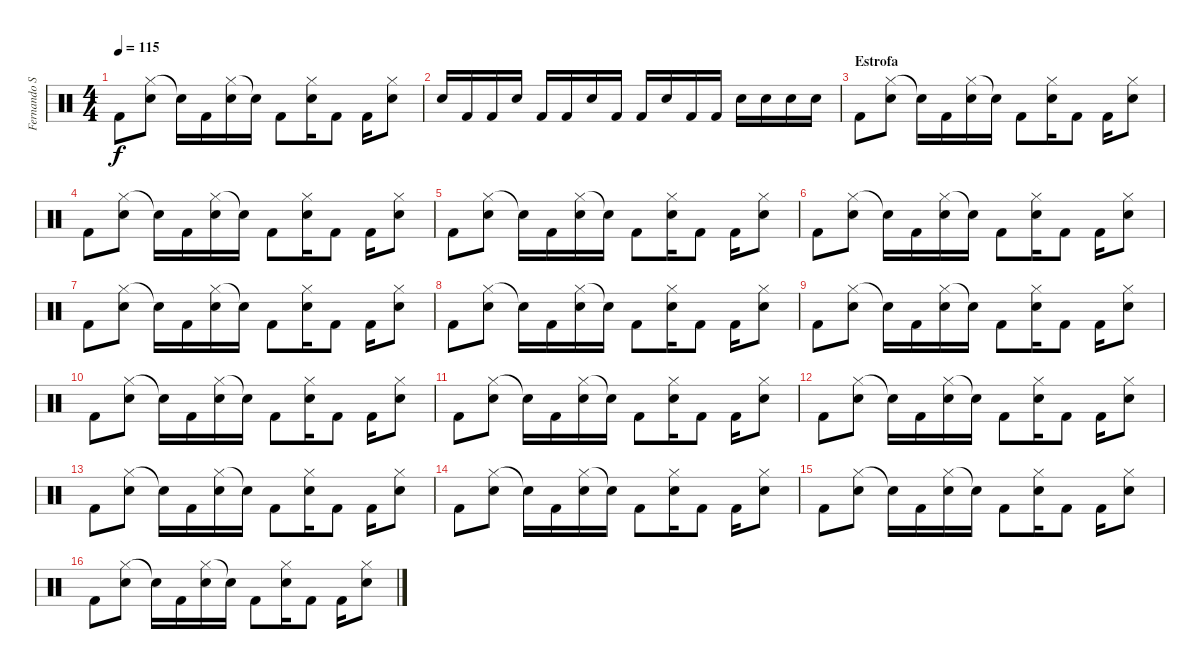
\track ("Fernando Scarcella" "Fernando S") {instrument percussion}
\staff {score}
\articulation defaults
\ts (4 4)
\tempo 115
\clef neutral
\ks c "Kick (hit) 2".8{dy f}
("Hi-Hat (closed)" "Snare (hit) 2").8 "Snare (hit)"{t}.16 "Kick (hit) 2".16 ("Hi-Hat (closed)" "Snare (hit) 2").16 "Snare (hit)"{t}.16 "Kick (hit) 2".8 ("Hi-Hat (closed)" "Snare (hit) 2").16 "Kick (hit) 2".8 "Kick (hit) 2".16 ("Hi-Hat (closed)" "Snare (hit) 2").8 |
"Snare (hit) 2".16 "Kick (hit) 2".16 "Kick (hit) 2".16 "Snare (hit) 2".16 "Kick (hit) 2".16 "Kick (hit) 2".16 "Snare (hit) 2".16 "Kick (hit) 2".16 "Kick (hit) 2".16 "Snare (hit) 2".16 "Kick (hit) 2".16 "Kick (hit) 2".16 "Snare (hit) 2".16 "Snare (hit) 2".16 "Snare (hit) 2".16 "Snare (hit) 2".16 |
\section ("" "Estrofa")
"Kick (hit) 2".8 ("Hi-Hat (closed)" "Snare (hit) 2").8 "Snare (hit)"{t}.16 "Kick (hit) 2".16 ("Hi-Hat (closed)" "Snare (hit) 2").16 "Snare (hit)"{t}.16 "Kick (hit) 2".8 ("Hi-Hat (closed)" "Snare (hit) 2").16 "Kick (hit) 2".8 "Kick (hit) 2".16 ("Hi-Hat (closed)" "Snare (hit) 2").8 |
"Kick (hit) 2".8 ("Hi-Hat (closed)" "Snare (hit) 2").8 "Snare (hit)"{t}.16 "Kick (hit) 2".16 ("Hi-Hat (closed)" "Snare (hit) 2").16 "Snare (hit)"{t}.16 "Kick (hit) 2".8 ("Hi-Hat (closed)" "Snare (hit) 2").16 "Kick (hit) 2".8 "Kick (hit) 2".16 ("Hi-Hat (closed)" "Snare (hit) 2").8 |
"Kick (hit) 2".8 ("Hi-Hat (closed)" "Snare (hit) 2").8 "Snare (hit)"{t}.16 "Kick (hit) 2".16 ("Hi-Hat (closed)" "Snare (hit) 2").16 "Snare (hit)"{t}.16 "Kick (hit) 2".8 ("Hi-Hat (closed)" "Snare (hit) 2").16 "Kick (hit) 2".8 "Kick (hit) 2".16 ("Hi-Hat (closed)" "Snare (hit) 2").8 |
"Kick (hit) 2".8 ("Hi-Hat (closed)" "Snare (hit) 2").8 "Snare (hit)"{t}.16 "Kick (hit) 2".16 ("Hi-Hat (closed)" "Snare (hit) 2").16 "Snare (hit)"{t}.16 "Kick (hit) 2".8 ("Hi-Hat (closed)" "Snare (hit) 2").16 "Kick (hit) 2".8 "Kick (hit) 2".16 ("Hi-Hat (closed)" "Snare (hit) 2").8 |
"Kick (hit) 2".8 ("Hi-Hat (closed)" "Snare (hit) 2").8 "Snare (hit)"{t}.16 "Kick (hit) 2".16 ("Hi-Hat (closed)" "Snare (hit) 2").16 "Snare (hit)"{t}.16 "Kick (hit) 2".8 ("Hi-Hat (closed)" "Snare (hit) 2").16 "Kick (hit) 2".8 "Kick (hit) 2".16 ("Hi-Hat (closed)" "Snare (hit) 2").8 |
"Kick (hit) 2".8 ("Hi-Hat (closed)" "Snare (hit) 2").8 "Snare (hit)"{t}.16 "Kick (hit) 2".16 ("Hi-Hat (closed)" "Snare (hit) 2").16 "Snare (hit)"{t}.16 "Kick (hit) 2".8 ("Hi-Hat (closed)" "Snare (hit) 2").16 "Kick (hit) 2".8 "Kick (hit) 2".16 ("Hi-Hat (closed)" "Snare (hit) 2").8 |
"Kick (hit) 2".8 ("Hi-Hat (closed)" "Snare (hit) 2").8 "Snare (hit)"{t}.16 "Kick (hit) 2".16 ("Hi-Hat (closed)" "Snare (hit) 2").16 "Snare (hit)"{t}.16 "Kick (hit) 2".8 ("Hi-Hat (closed)" "Snare (hit) 2").16 "Kick (hit) 2".8 "Kick (hit) 2".16 ("Hi-Hat (closed)" "Snare (hit) 2").8 |
"Kick (hit) 2".8 ("Hi-Hat (closed)" "Snare (hit) 2").8 "Snare (hit)"{t}.16 "Kick (hit) 2".16 ("Hi-Hat (closed)" "Snare (hit) 2").16 "Snare (hit)"{t}.16 "Kick (hit) 2".8 ("Hi-Hat (closed)" "Snare (hit) 2").16 "Kick (hit) 2".8 "Kick (hit) 2".16 ("Hi-Hat (closed)" "Snare (hit) 2").8 |
"Kick (hit) 2".8 ("Hi-Hat (closed)" "Snare (hit) 2").8 "Snare (hit)"{t}.16 "Kick (hit) 2".16 ("Hi-Hat (closed)" "Snare (hit) 2").16 "Snare (hit)"{t}.16 "Kick (hit) 2".8 ("Hi-Hat (closed)" "Snare (hit) 2").16 "Kick (hit) 2".8 "Kick (hit) 2".16 ("Hi-Hat (closed)" "Snare (hit) 2").8 |
"Kick (hit) 2".8 ("Hi-Hat (closed)" "Snare (hit) 2").8 "Snare (hit)"{t}.16 "Kick (hit) 2".16 ("Hi-Hat (closed)" "Snare (hit) 2").16 "Snare (hit)"{t}.16 "Kick (hit) 2".8 ("Hi-Hat (closed)" "Snare (hit) 2").16 "Kick (hit) 2".8 "Kick (hit) 2".16 ("Hi-Hat (closed)" "Snare (hit) 2").8 |
"Kick (hit) 2".8 ("Hi-Hat (closed)" "Snare (hit) 2").8 "Snare (hit)"{t}.16 "Kick (hit) 2".16 ("Hi-Hat (closed)" "Snare (hit) 2").16 "Snare (hit)"{t}.16 "Kick (hit) 2".8 ("Hi-Hat (closed)" "Snare (hit) 2").16 "Kick (hit) 2".8 "Kick (hit) 2".16 ("Hi-Hat (closed)" "Snare (hit) 2").8 |
"Kick (hit) 2".8 ("Hi-Hat (closed)" "Snare (hit) 2").8 "Snare (hit)"{t}.16 "Kick (hit) 2".16 ("Hi-Hat (closed)" "Snare (hit) 2").16 "Snare (hit)"{t}.16 "Kick (hit) 2".8 ("Hi-Hat (closed)" "Snare (hit) 2").16 "Kick (hit) 2".8 "Kick (hit) 2".16 ("Hi-Hat (closed)" "Snare (hit) 2").8 |
"Kick (hit) 2".8 ("Hi-Hat (closed)" "Snare (hit) 2").8 "Snare (hit)"{t}.16 "Kick (hit) 2".16 ("Hi-Hat (closed)" "Snare (hit) 2").16 "Snare (hit)"{t}.16 "Kick (hit) 2".8 ("Hi-Hat (closed)" "Snare (hit) 2").16 "Kick (hit) 2".8 "Kick (hit) 2".16 ("Hi-Hat (closed)" "Snare (hit) 2").8 |
"Kick (hit) 2".8 ("Hi-Hat (closed)" "Snare (hit) 2").8 "Snare (hit)"{t}.16 "Kick (hit) 2".16 ("Hi-Hat (closed)" "Snare (hit) 2").16 "Snare (hit)"{t}.16 "Kick (hit) 2".8 ("Hi-Hat (closed)" "Snare (hit) 2").16 "Kick (hit) 2".8 "Kick (hit) 2".16 ("Hi-Hat (closed)" "Snare (hit) 2").8
